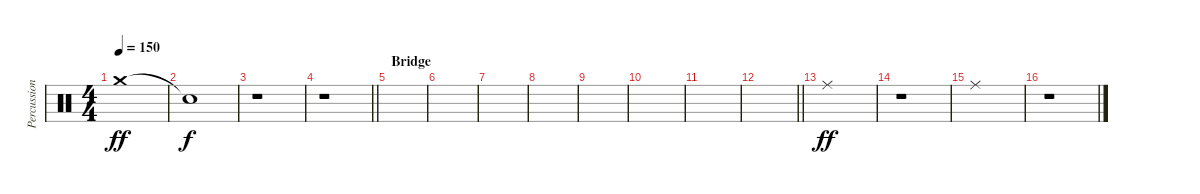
\track ("Percussion" "Percussion") {instrument percussion}
\staff {score}
\articulation defaults
\ts (4 4)
\tempo 150
\clef neutral
\ks c "Crash medium (hit)".1{dy ff}
|
"Snare (hit)"{t}.1{dy f} |
r.1 |
\barLineRight lightlight
r.1 |
\section ("" "Bridge")
|
|
|
|
|
|
|
\barLineRight lightlight
|
"Ride (middle)".1{dy ff} |
r.1 |
"Ride (middle)".1 |
r.1
